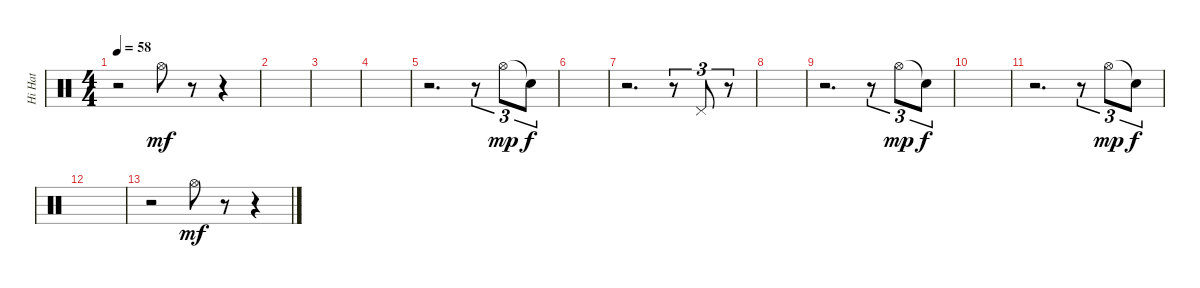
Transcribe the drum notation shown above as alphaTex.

\track ("Hi Hat" "Hi Hat") {instrument percussion}
\staff {score}
\articulation defaults
\ts (4 4)
\tempo 58
\clef neutral
\ks c
r.2{dy f} "Hi-Hat (open)".8{dy mf} r.8 r.4 |
|
|
|
r.2{d} r.8{tu (3 2)} "Hi-Hat (open)".8{tu (3 2) dy mp} "Snare (hit)"{t}.8{tu (3 2) dy f} |
|
r.2{d} r.8{tu (3 2)} "Pedal Hi-Hat (hit)".8{tu (3 2)} r.8{tu (3 2)} |
|
r.2{d} r.8{tu (3 2)} "Hi-Hat (open)".8{tu (3 2) dy mp} "Snare (hit)"{t}.8{tu (3 2) dy f} |
|
r.2{d} r.8{tu (3 2)} "Hi-Hat (open)".8{tu (3 2) dy mp} "Snare (hit)"{t}.8{tu (3 2) dy f} |
|
r.2 "Hi-Hat (open)".8{dy mf} r.8 r.4
